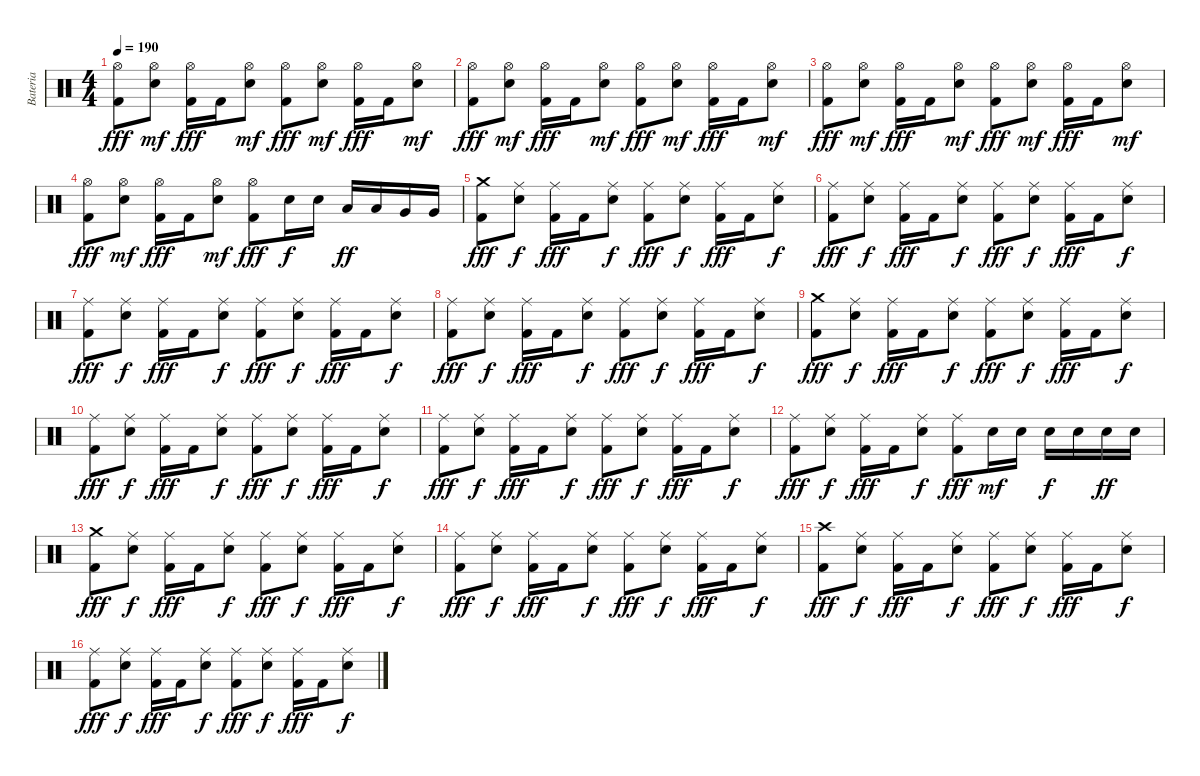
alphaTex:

\track ("Bateria" "Bateria") {instrument percussion}
\staff {score}
\articulation defaults
\ts (4 4)
\tempo 190
\clef neutral
\ks c
("Hi-Hat (open)" "Kick (hit) 2").8{dy fff} ("Hi-Hat (open)" "Electric Snare (hit)").8{dy mf} ("Hi-Hat (open)" "Kick (hit) 2").16{dy fff} "Kick (hit) 2".16 ("Hi-Hat (open)" "Electric Snare (hit)").8{dy mf} ("Hi-Hat (open)" "Kick (hit) 2").8{dy fff} ("Hi-Hat (open)" "Electric Snare (hit)").8{dy mf} ("Hi-Hat (open)" "Kick (hit) 2").16{dy fff} "Kick (hit) 2".16 ("Hi-Hat (open)" "Electric Snare (hit)").8{dy mf} |
("Hi-Hat (open)" "Kick (hit) 2").8{dy fff} ("Hi-Hat (open)" "Electric Snare (hit)").8{dy mf} ("Hi-Hat (open)" "Kick (hit) 2").16{dy fff} "Kick (hit) 2".16 ("Hi-Hat (open)" "Electric Snare (hit)").8{dy mf} ("Hi-Hat (open)" "Kick (hit) 2").8{dy fff} ("Hi-Hat (open)" "Electric Snare (hit)").8{dy mf} ("Hi-Hat (open)" "Kick (hit) 2").16{dy fff} "Kick (hit) 2".16 ("Hi-Hat (open)" "Electric Snare (hit)").8{dy mf} |
("Hi-Hat (open)" "Kick (hit) 2").8{dy fff} ("Hi-Hat (open)" "Electric Snare (hit)").8{dy mf} ("Hi-Hat (open)" "Kick (hit) 2").16{dy fff} "Kick (hit) 2".16 ("Hi-Hat (open)" "Electric Snare (hit)").8{dy mf} ("Hi-Hat (open)" "Kick (hit) 2").8{dy fff} ("Hi-Hat (open)" "Electric Snare (hit)").8{dy mf} ("Hi-Hat (open)" "Kick (hit) 2").16{dy fff} "Kick (hit) 2".16 ("Hi-Hat (open)" "Electric Snare (hit)").8{dy mf} |
("Hi-Hat (open)" "Kick (hit) 2").8{dy fff} ("Hi-Hat (open)" "Electric Snare (hit)").8{dy mf} ("Hi-Hat (open)" "Kick (hit) 2").16{dy fff} "Kick (hit) 2".16 ("Hi-Hat (open)" "Electric Snare (hit)").8{dy mf} ("Hi-Hat (open)" "Kick (hit) 2").8{dy fff} "Electric Snare (hit)".16{dy f} "Electric Snare (hit)".16 "Low Tom (hit)".16{dy ff} "Low Tom (hit)".16 "Very Low Tom (hit)".16 "Very Low Tom (hit)".16 |
("Crash medium (hit)" "Kick (hit) 2").8{dy fff} ("Ride (middle)" "Electric Snare (hit)").8{dy f} ("Ride (middle)" "Kick (hit) 2").16{dy fff} "Kick (hit) 2".16 ("Ride (middle)" "Electric Snare (hit)").8{dy f} ("Ride (middle)" "Kick (hit) 2").8{dy fff} ("Ride (middle)" "Electric Snare (hit)").8{dy f} ("Ride (middle)" "Kick (hit) 2").16{dy fff} "Kick (hit) 2".16 ("Ride (middle)" "Electric Snare (hit)").8{dy f} |
("Ride (middle)" "Kick (hit) 2").8{dy fff} ("Ride (middle)" "Electric Snare (hit)").8{dy f} ("Ride (middle)" "Kick (hit) 2").16{dy fff} "Kick (hit) 2".16 ("Ride (middle)" "Electric Snare (hit)").8{dy f} ("Ride (middle)" "Kick (hit) 2").8{dy fff} ("Ride (middle)" "Electric Snare (hit)").8{dy f} ("Ride (middle)" "Kick (hit) 2").16{dy fff} "Kick (hit) 2".16 ("Ride (middle)" "Electric Snare (hit)").8{dy f} |
("Ride (middle)" "Kick (hit) 2").8{dy fff} ("Ride (middle)" "Electric Snare (hit)").8{dy f} ("Ride (middle)" "Kick (hit) 2").16{dy fff} "Kick (hit) 2".16 ("Ride (middle)" "Electric Snare (hit)").8{dy f} ("Ride (middle)" "Kick (hit) 2").8{dy fff} ("Ride (middle)" "Electric Snare (hit)").8{dy f} ("Ride (middle)" "Kick (hit) 2").16{dy fff} "Kick (hit) 2".16 ("Ride (middle)" "Electric Snare (hit)").8{dy f} |
("Ride (middle)" "Kick (hit) 2").8{dy fff} ("Ride (middle)" "Electric Snare (hit)").8{dy f} ("Ride (middle)" "Kick (hit) 2").16{dy fff} "Kick (hit) 2".16 ("Ride (middle)" "Electric Snare (hit)").8{dy f} ("Ride (middle)" "Kick (hit) 2").8{dy fff} ("Ride (middle)" "Electric Snare (hit)").8{dy f} ("Ride (middle)" "Kick (hit) 2").16{dy fff} "Kick (hit) 2".16 ("Ride (middle)" "Electric Snare (hit)").8{dy f} |
("Crash medium (hit)" "Kick (hit) 2").8{dy fff} ("Ride (middle)" "Electric Snare (hit)").8{dy f} ("Ride (middle)" "Kick (hit) 2").16{dy fff} "Kick (hit) 2".16 ("Ride (middle)" "Electric Snare (hit)").8{dy f} ("Ride (middle)" "Kick (hit) 2").8{dy fff} ("Ride (middle)" "Electric Snare (hit)").8{dy f} ("Ride (middle)" "Kick (hit) 2").16{dy fff} "Kick (hit) 2".16 ("Ride (middle)" "Electric Snare (hit)").8{dy f} |
("Ride (middle)" "Kick (hit) 2").8{dy fff} ("Ride (middle)" "Electric Snare (hit)").8{dy f} ("Ride (middle)" "Kick (hit) 2").16{dy fff} "Kick (hit) 2".16 ("Ride (middle)" "Electric Snare (hit)").8{dy f} ("Ride (middle)" "Kick (hit) 2").8{dy fff} ("Ride (middle)" "Electric Snare (hit)").8{dy f} ("Ride (middle)" "Kick (hit) 2").16{dy fff} "Kick (hit) 2".16 ("Ride (middle)" "Electric Snare (hit)").8{dy f} |
("Ride (middle)" "Kick (hit) 2").8{dy fff} ("Ride (middle)" "Electric Snare (hit)").8{dy f} ("Ride (middle)" "Kick (hit) 2").16{dy fff} "Kick (hit) 2".16 ("Ride (middle)" "Electric Snare (hit)").8{dy f} ("Ride (middle)" "Kick (hit) 2").8{dy fff} ("Ride (middle)" "Electric Snare (hit)").8{dy f} ("Ride (middle)" "Kick (hit) 2").16{dy fff} "Kick (hit) 2".16 ("Ride (middle)" "Electric Snare (hit)").8{dy f} |
("Ride (middle)" "Kick (hit) 2").8{dy fff} ("Ride (middle)" "Electric Snare (hit)").8{dy f} ("Ride (middle)" "Kick (hit) 2").16{dy fff} "Kick (hit) 2".16 ("Ride (middle)" "Electric Snare (hit)").8{dy f} ("Ride (middle)" "Kick (hit) 2").8{dy fff} "Electric Snare (hit)".16{dy mf} "Electric Snare (hit)".16 "Electric Snare (hit)".16{dy f} "Electric Snare (hit)".16 "Electric Snare (hit)".16{dy ff} "Electric Snare (hit)".16 |
("Crash medium (hit)" "Kick (hit) 2").8{dy fff} ("Ride (middle)" "Electric Snare (hit)").8{dy f} ("Ride (middle)" "Kick (hit) 2").16{dy fff} "Kick (hit) 2".16 ("Ride (middle)" "Electric Snare (hit)").8{dy f} ("Ride (middle)" "Kick (hit) 2").8{dy fff} ("Ride (middle)" "Electric Snare (hit)").8{dy f} ("Ride (middle)" "Kick (hit) 2").16{dy fff} "Kick (hit) 2".16 ("Ride (middle)" "Electric Snare (hit)").8{dy f} |
("Ride (middle)" "Kick (hit) 2").8{dy fff} ("Ride (middle)" "Electric Snare (hit)").8{dy f} ("Ride (middle)" "Kick (hit) 2").16{dy fff} "Kick (hit) 2".16 ("Ride (middle)" "Electric Snare (hit)").8{dy f} ("Ride (middle)" "Kick (hit) 2").8{dy fff} ("Ride (middle)" "Electric Snare (hit)").8{dy f} ("Ride (middle)" "Kick (hit) 2").16{dy fff} "Kick (hit) 2".16 ("Ride (middle)" "Electric Snare (hit)").8{dy f} |
("Crash high (hit)" "Kick (hit) 2").8{dy fff} ("Ride (middle)" "Electric Snare (hit)").8{dy f} ("Ride (middle)" "Kick (hit) 2").16{dy fff} "Kick (hit) 2".16 ("Ride (middle)" "Electric Snare (hit)").8{dy f} ("Ride (middle)" "Kick (hit) 2").8{dy fff} ("Ride (middle)" "Electric Snare (hit)").8{dy f} ("Ride (middle)" "Kick (hit) 2").16{dy fff} "Kick (hit) 2".16 ("Ride (middle)" "Electric Snare (hit)").8{dy f} |
("Ride (middle)" "Kick (hit) 2").8{dy fff} ("Ride (middle)" "Electric Snare (hit)").8{dy f} ("Ride (middle)" "Kick (hit) 2").16{dy fff} "Kick (hit) 2".16 ("Ride (middle)" "Electric Snare (hit)").8{dy f} ("Ride (middle)" "Kick (hit) 2").8{dy fff} ("Ride (middle)" "Electric Snare (hit)").8{dy f} ("Ride (middle)" "Kick (hit) 2").16{dy fff} "Kick (hit) 2".16 ("Ride (middle)" "Electric Snare (hit)").8{dy f}
